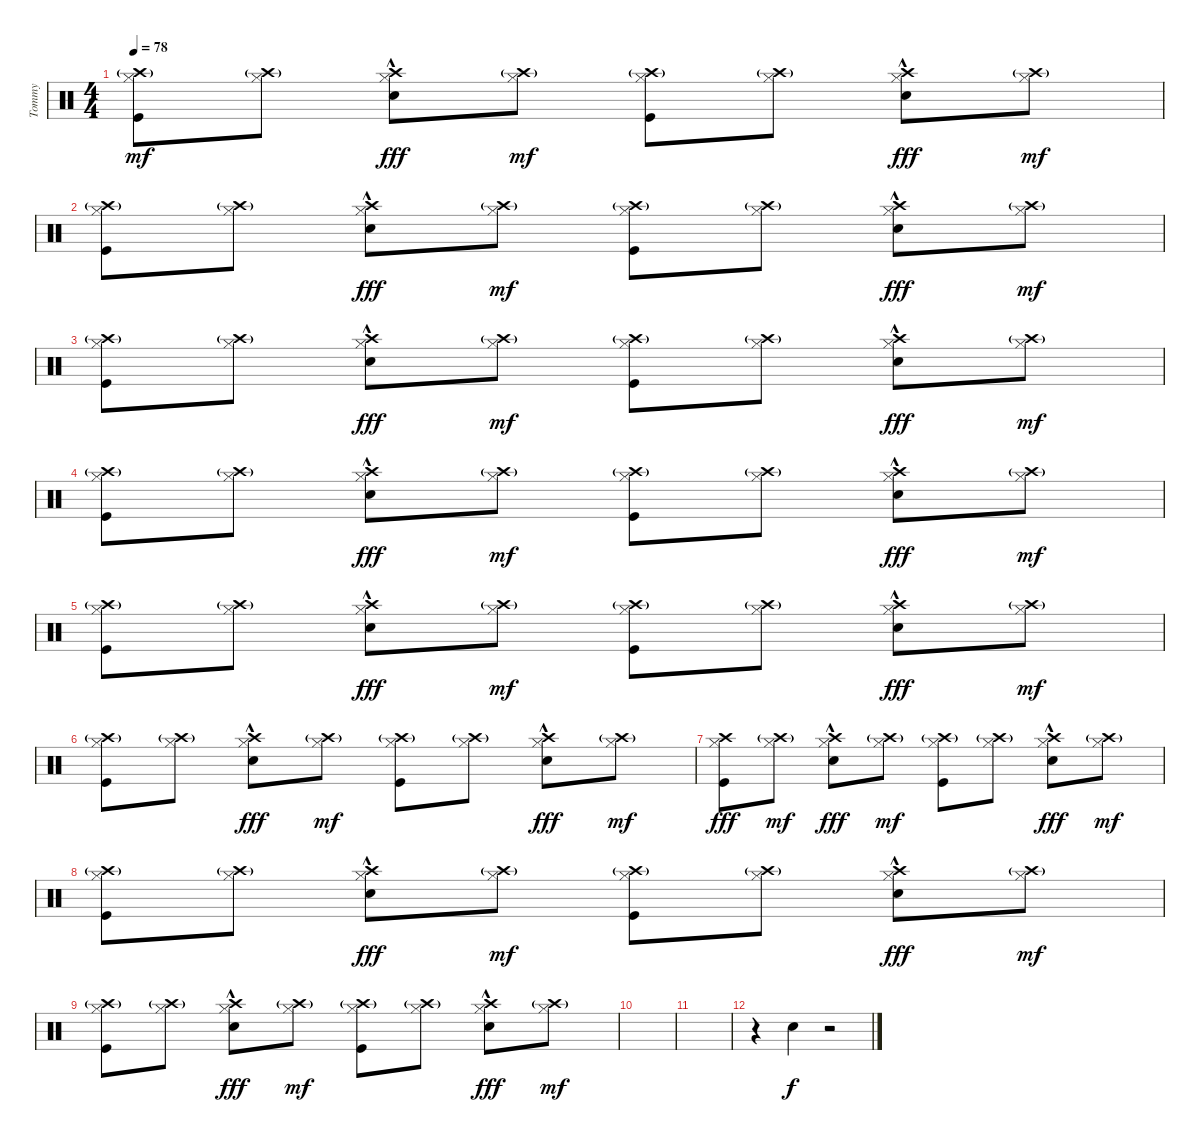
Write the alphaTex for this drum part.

\track ("Tommy" "Tommy") {instrument percussion}
\staff {score}
\articulation defaults
\ts (4 4)
\tempo 78
\clef neutral
\ks c
("Crash high (hit)"{g} "Hi-Hat (closed)" "Kick (hit)").8{dy mf} ("Crash high (hit)"{g} "Hi-Hat (closed)").8 ("Crash high (hit)" "Hi-Hat (closed)" "Electric Snare (hit)"{hac}).8{dy fff} ("Crash high (hit)"{g} "Hi-Hat (closed)").8{dy mf} ("Crash high (hit)"{g} "Hi-Hat (closed)" "Kick (hit)").8 ("Crash high (hit)"{g} "Hi-Hat (closed)").8 ("Crash high (hit)" "Hi-Hat (closed)" "Electric Snare (hit)"{hac}).8{dy fff} ("Crash high (hit)"{g} "Hi-Hat (closed)").8{dy mf} |
("Crash high (hit)"{g} "Hi-Hat (closed)" "Kick (hit)").8 ("Crash high (hit)"{g} "Hi-Hat (closed)").8 ("Crash high (hit)" "Hi-Hat (closed)" "Electric Snare (hit)"{hac}).8{dy fff} ("Crash high (hit)"{g} "Hi-Hat (closed)").8{dy mf} ("Crash high (hit)"{g} "Hi-Hat (closed)" "Kick (hit)").8 ("Crash high (hit)"{g} "Hi-Hat (closed)").8 ("Crash high (hit)" "Hi-Hat (closed)" "Electric Snare (hit)"{hac}).8{dy fff} ("Crash high (hit)"{g} "Hi-Hat (closed)").8{dy mf} |
("Crash high (hit)"{g} "Hi-Hat (closed)" "Kick (hit)").8 ("Crash high (hit)"{g} "Hi-Hat (closed)").8 ("Crash high (hit)" "Hi-Hat (closed)" "Electric Snare (hit)"{hac}).8{dy fff} ("Crash high (hit)"{g} "Hi-Hat (closed)").8{dy mf} ("Crash high (hit)"{g} "Hi-Hat (closed)" "Kick (hit)").8 ("Crash high (hit)"{g} "Hi-Hat (closed)").8 ("Crash high (hit)" "Hi-Hat (closed)" "Electric Snare (hit)"{hac}).8{dy fff} ("Crash high (hit)"{g} "Hi-Hat (closed)").8{dy mf} |
("Crash high (hit)"{g} "Hi-Hat (closed)" "Kick (hit)").8 ("Crash high (hit)"{g} "Hi-Hat (closed)").8 ("Crash high (hit)" "Hi-Hat (closed)" "Electric Snare (hit)"{hac}).8{dy fff} ("Crash high (hit)"{g} "Hi-Hat (closed)").8{dy mf} ("Crash high (hit)"{g} "Hi-Hat (closed)" "Kick (hit)").8 ("Crash high (hit)"{g} "Hi-Hat (closed)").8 ("Crash high (hit)" "Hi-Hat (closed)" "Electric Snare (hit)"{hac}).8{dy fff} ("Crash high (hit)"{g} "Hi-Hat (closed)").8{dy mf} |
("Crash high (hit)"{g} "Hi-Hat (closed)" "Kick (hit)").8 ("Crash high (hit)"{g} "Hi-Hat (closed)").8 ("Crash high (hit)" "Hi-Hat (closed)" "Electric Snare (hit)"{hac}).8{dy fff} ("Crash high (hit)"{g} "Hi-Hat (closed)").8{dy mf} ("Crash high (hit)"{g} "Hi-Hat (closed)" "Kick (hit)").8 ("Crash high (hit)"{g} "Hi-Hat (closed)").8 ("Crash high (hit)" "Hi-Hat (closed)" "Electric Snare (hit)"{hac}).8{dy fff} ("Crash high (hit)"{g} "Hi-Hat (closed)").8{dy mf} |
("Crash high (hit)"{g} "Hi-Hat (closed)" "Kick (hit)").8 ("Crash high (hit)"{g} "Hi-Hat (closed)").8 ("Crash high (hit)" "Hi-Hat (closed)" "Electric Snare (hit)"{hac}).8{dy fff} ("Crash high (hit)"{g} "Hi-Hat (closed)").8{dy mf} ("Crash high (hit)"{g} "Hi-Hat (closed)" "Kick (hit)").8 ("Crash high (hit)"{g} "Hi-Hat (closed)").8 ("Crash high (hit)" "Hi-Hat (closed)" "Electric Snare (hit)"{hac}).8{dy fff} ("Crash high (hit)"{g} "Hi-Hat (closed)").8{dy mf} |
("Crash high (hit)" "Hi-Hat (closed)" "Kick (hit)").8{dy fff} ("Crash high (hit)"{g} "Hi-Hat (closed)").8{dy mf} ("Crash high (hit)" "Hi-Hat (closed)" "Electric Snare (hit)"{hac}).8{dy fff} ("Crash high (hit)"{g} "Hi-Hat (closed)").8{dy mf} ("Crash high (hit)"{g} "Hi-Hat (closed)" "Kick (hit)").8 ("Crash high (hit)"{g} "Hi-Hat (closed)").8 ("Crash high (hit)" "Hi-Hat (closed)" "Electric Snare (hit)"{hac}).8{dy fff} ("Crash high (hit)"{g} "Hi-Hat (closed)").8{dy mf} |
("Crash high (hit)"{g} "Hi-Hat (closed)" "Kick (hit)").8 ("Crash high (hit)"{g} "Hi-Hat (closed)").8 ("Crash high (hit)" "Hi-Hat (closed)" "Electric Snare (hit)"{hac}).8{dy fff} ("Crash high (hit)"{g} "Hi-Hat (closed)").8{dy mf} ("Crash high (hit)"{g} "Hi-Hat (closed)" "Kick (hit)").8 ("Crash high (hit)"{g} "Hi-Hat (closed)").8 ("Crash high (hit)" "Hi-Hat (closed)" "Electric Snare (hit)"{hac}).8{dy fff} ("Crash high (hit)"{g} "Hi-Hat (closed)").8{dy mf} |
("Crash high (hit)"{g} "Hi-Hat (closed)" "Kick (hit)").8 ("Crash high (hit)"{g} "Hi-Hat (closed)").8 ("Crash high (hit)" "Hi-Hat (closed)" "Electric Snare (hit)"{hac}).8{dy fff} ("Crash high (hit)"{g} "Hi-Hat (closed)").8{dy mf} ("Crash high (hit)"{g} "Hi-Hat (closed)" "Kick (hit)").8 ("Crash high (hit)"{g} "Hi-Hat (closed)").8 ("Crash high (hit)" "Hi-Hat (closed)" "Electric Snare (hit)"{hac}).8{dy fff} ("Crash high (hit)"{g} "Hi-Hat (closed)").8{dy mf} |
|
|
r.4 "Electric Snare (hit)".4{dy f} r.2
